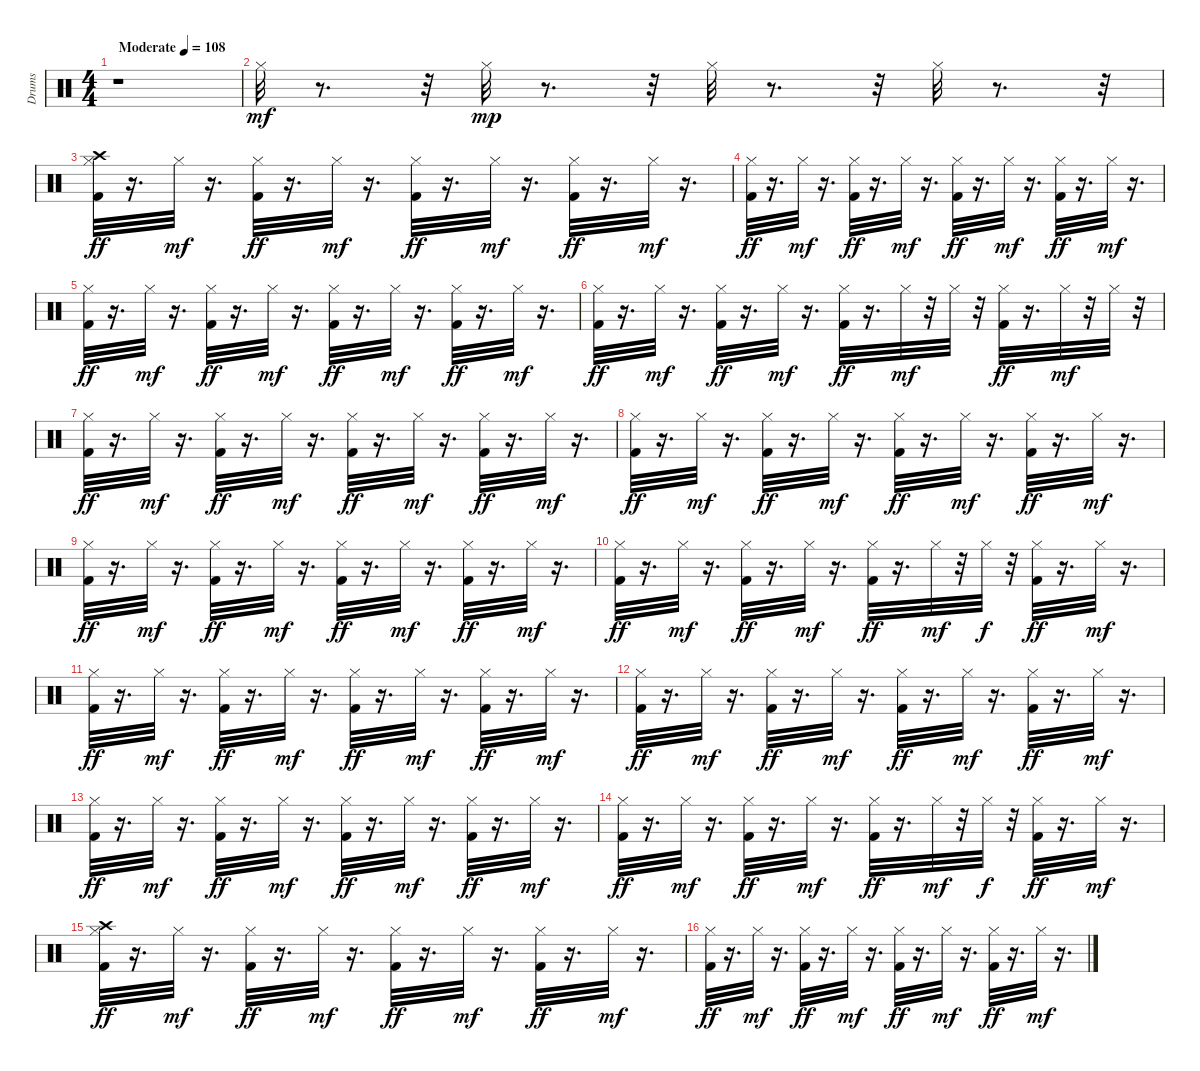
\track ("Drums               " "Drums     ") {instrument percussion}
\staff {score}
\articulation defaults
\ts (4 4)
\tempo (108 "Moderate")
\clef neutral
\ks c
r.1{dy mf} |
"Hi-Hat (closed)".32 r.8{d} r.32 "Hi-Hat (closed)".32{dy mp} r.8{d} r.32 "Hi-Hat (closed)".32 r.8{d} r.32 "Hi-Hat (closed)".32 r.8{d} r.32 |
("Hi-Hat (closed)" "Kick (hit) 2" "Crash high (hit)").32{dy ff} r.16{d} "Hi-Hat (closed)".32{dy mf} r.16{d} ("Kick (hit) 2" "Hi-Hat (closed)").32{dy ff} r.16{d} "Hi-Hat (closed)".32{dy mf} r.16{d} ("Kick (hit) 2" "Hi-Hat (closed)").32{dy ff} r.16{d} "Hi-Hat (closed)".32{dy mf} r.16{d} ("Kick (hit) 2" "Hi-Hat (closed)").32{dy ff} r.16{d} "Hi-Hat (closed)".32{dy mf} r.16{d} |
("Kick (hit) 2" "Hi-Hat (closed)").32{dy ff} r.16{d} "Hi-Hat (closed)".32{dy mf} r.16{d} ("Kick (hit) 2" "Hi-Hat (closed)").32{dy ff} r.16{d} "Hi-Hat (closed)".32{dy mf} r.16{d} ("Kick (hit) 2" "Hi-Hat (closed)").32{dy ff} r.16{d} "Hi-Hat (closed)".32{dy mf} r.16{d} ("Kick (hit) 2" "Hi-Hat (closed)").32{dy ff} r.16{d} "Hi-Hat (closed)".32{dy mf} r.16{d} |
("Kick (hit) 2" "Hi-Hat (closed)").32{dy ff} r.16{d} "Hi-Hat (closed)".32{dy mf} r.16{d} ("Kick (hit) 2" "Hi-Hat (closed)").32{dy ff} r.16{d} "Hi-Hat (closed)".32{dy mf} r.16{d} ("Kick (hit) 2" "Hi-Hat (closed)").32{dy ff} r.16{d} "Hi-Hat (closed)".32{dy mf} r.16{d} ("Hi-Hat (closed)" "Kick (hit) 2").32{dy ff} r.16{d} "Hi-Hat (closed)".32{dy mf} r.16{d} |
("Kick (hit) 2" "Hi-Hat (closed)").32{dy ff} r.16{d} "Hi-Hat (closed)".32{dy mf} r.16{d} ("Kick (hit) 2" "Hi-Hat (closed)").32{dy ff} r.16{d} "Hi-Hat (closed)".32{dy mf} r.16{d} ("Kick (hit) 2" "Hi-Hat (closed)").32{dy ff} r.16{d} "Hi-Hat (closed)".32{dy mf} r.32 "Hi-Hat (closed)".32 r.32 ("Kick (hit) 2" "Hi-Hat (closed)").32{dy ff} r.16{d} "Hi-Hat (closed)".32{dy mf} r.32 "Hi-Hat (closed)".32 r.32 |
("Kick (hit) 2" "Hi-Hat (closed)").32{dy ff} r.16{d} "Hi-Hat (closed)".32{dy mf} r.16{d} ("Kick (hit) 2" "Hi-Hat (closed)").32{dy ff} r.16{d} "Hi-Hat (closed)".32{dy mf} r.16{d} ("Kick (hit) 2" "Hi-Hat (closed)").32{dy ff} r.16{d} "Hi-Hat (closed)".32{dy mf} r.16{d} ("Kick (hit) 2" "Hi-Hat (closed)").32{dy ff} r.16{d} "Hi-Hat (closed)".32{dy mf} r.16{d} |
("Kick (hit) 2" "Hi-Hat (closed)").32{dy ff} r.16{d} "Hi-Hat (closed)".32{dy mf} r.16{d} ("Kick (hit) 2" "Hi-Hat (closed)").32{dy ff} r.16{d} "Hi-Hat (closed)".32{dy mf} r.16{d} ("Hi-Hat (closed)" "Kick (hit) 2").32{dy ff} r.16{d} "Hi-Hat (closed)".32{dy mf} r.16{d} ("Kick (hit) 2" "Hi-Hat (closed)").32{dy ff} r.16{d} "Hi-Hat (closed)".32{dy mf} r.16{d} |
("Kick (hit) 2" "Hi-Hat (closed)").32{dy ff} r.16{d} "Hi-Hat (closed)".32{dy mf} r.16{d} ("Kick (hit) 2" "Hi-Hat (closed)").32{dy ff} r.16{d} "Hi-Hat (closed)".32{dy mf} r.16{d} ("Kick (hit) 2" "Hi-Hat (closed)").32{dy ff} r.16{d} "Hi-Hat (closed)".32{dy mf} r.16{d} ("Kick (hit) 2" "Hi-Hat (closed)").32{dy ff} r.16{d} "Hi-Hat (closed)".32{dy mf} r.16{d} |
("Kick (hit) 2" "Hi-Hat (closed)").32{dy ff} r.16{d} "Hi-Hat (closed)".32{dy mf} r.16{d} ("Kick (hit) 2" "Hi-Hat (closed)").32{dy ff} r.16{d} "Hi-Hat (closed)".32{dy mf} r.16{d} ("Kick (hit) 2" "Hi-Hat (closed)").32{dy ff} r.16{d} "Hi-Hat (closed)".32{dy mf} r.32 "Hi-Hat (closed)".32{dy f} r.32 ("Kick (hit) 2" "Hi-Hat (closed)").32{dy ff} r.16{d} "Hi-Hat (closed)".32{dy mf} r.16{d} |
("Kick (hit) 2" "Hi-Hat (closed)").32{dy ff} r.16{d} "Hi-Hat (closed)".32{dy mf} r.16{d} ("Hi-Hat (closed)" "Kick (hit) 2").32{dy ff} r.16{d} "Hi-Hat (closed)".32{dy mf} r.16{d} ("Kick (hit) 2" "Hi-Hat (closed)").32{dy ff} r.16{d} "Hi-Hat (closed)".32{dy mf} r.16{d} ("Kick (hit) 2" "Hi-Hat (closed)").32{dy ff} r.16{d} "Hi-Hat (closed)".32{dy mf} r.16{d} |
("Kick (hit) 2" "Hi-Hat (closed)").32{dy ff} r.16{d} "Hi-Hat (closed)".32{dy mf} r.16{d} ("Kick (hit) 2" "Hi-Hat (closed)").32{dy ff} r.16{d} "Hi-Hat (closed)".32{dy mf} r.16{d} ("Kick (hit) 2" "Hi-Hat (closed)").32{dy ff} r.16{d} "Hi-Hat (closed)".32{dy mf} r.16{d} ("Kick (hit) 2" "Hi-Hat (closed)").32{dy ff} r.16{d} "Hi-Hat (closed)".32{dy mf} r.16{d} |
("Kick (hit) 2" "Hi-Hat (closed)").32{dy ff} r.16{d} "Hi-Hat (closed)".32{dy mf} r.16{d} ("Kick (hit) 2" "Hi-Hat (closed)").32{dy ff} r.16{d} "Hi-Hat (closed)".32{dy mf} r.16{d} ("Kick (hit) 2" "Hi-Hat (closed)").32{dy ff} r.16{d} "Hi-Hat (closed)".32{dy mf} r.16{d} ("Kick (hit) 2" "Hi-Hat (closed)").32{dy ff} r.16{d} "Hi-Hat (closed)".32{dy mf} r.16{d} |
("Hi-Hat (closed)" "Kick (hit) 2").32{dy ff} r.16{d} "Hi-Hat (closed)".32{dy mf} r.16{d} ("Kick (hit) 2" "Hi-Hat (closed)").32{dy ff} r.16{d} "Hi-Hat (closed)".32{dy mf} r.16{d} ("Kick (hit) 2" "Hi-Hat (closed)").32{dy ff} r.16{d} "Hi-Hat (closed)".32{dy mf} r.32 "Hi-Hat (closed)".32{dy f} r.32 ("Kick (hit) 2" "Hi-Hat (closed)").32{dy ff} r.16{d} "Hi-Hat (closed)".32{dy mf} r.16{d} |
("Kick (hit) 2" "Hi-Hat (closed)" "Crash high (hit)").32{dy ff} r.16{d} "Hi-Hat (closed)".32{dy mf} r.16{d} ("Kick (hit) 2" "Hi-Hat (closed)").32{dy ff} r.16{d} "Hi-Hat (closed)".32{dy mf} r.16{d} ("Kick (hit) 2" "Hi-Hat (closed)").32{dy ff} r.16{d} "Hi-Hat (closed)".32{dy mf} r.16{d} ("Kick (hit) 2" "Hi-Hat (closed)").32{dy ff} r.16{d} "Hi-Hat (closed)".32{dy mf} r.16{d} |
("Kick (hit) 2" "Hi-Hat (closed)").32{dy ff} r.16{d} "Hi-Hat (closed)".32{dy mf} r.16{d} ("Kick (hit) 2" "Hi-Hat (closed)").32{dy ff} r.16{d} "Hi-Hat (closed)".32{dy mf} r.16{d} ("Kick (hit) 2" "Hi-Hat (closed)").32{dy ff} r.16{d} "Hi-Hat (closed)".32{dy mf} r.16{d} ("Hi-Hat (closed)" "Kick (hit) 2").32{dy ff} r.16{d} "Hi-Hat (closed)".32{dy mf} r.16{d}
